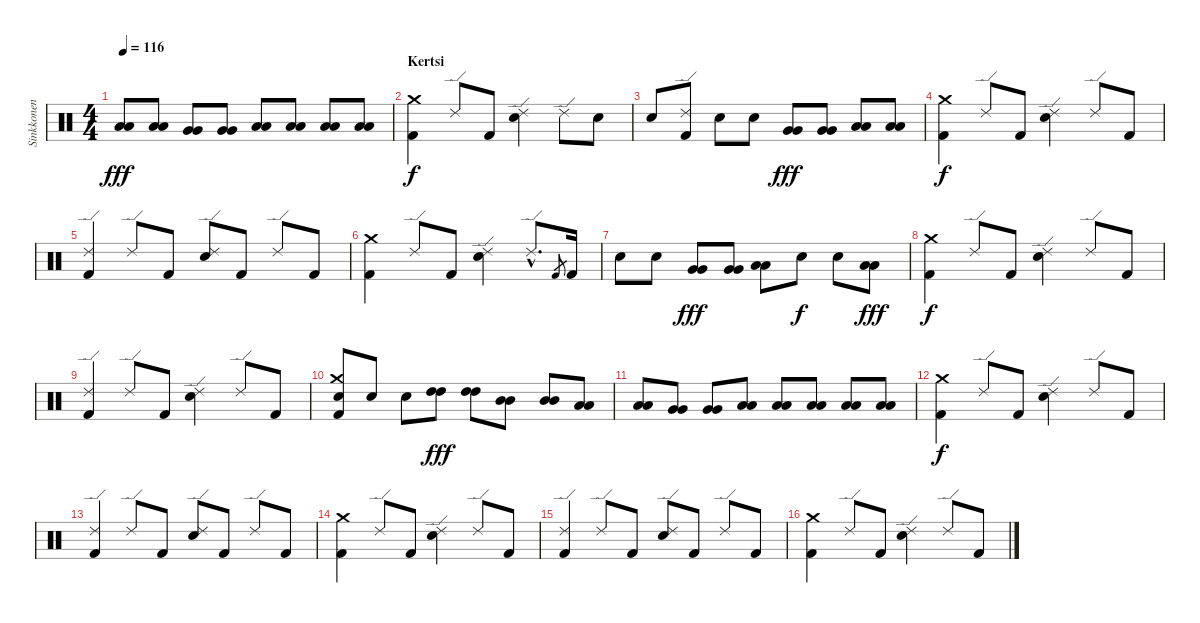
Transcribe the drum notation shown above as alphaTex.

\track ("Sinkkonen" "Sinkkonen") {instrument percussion}
\staff {score}
\articulation defaults
\ts (4 4)
\tempo 116
\clef neutral
\ks c
("Low Tom (hit)" "Low Tom (hit)").8{dy fff} ("Low Tom (hit)" "Low Tom (hit)").8 ("Very Low Tom (hit)" "Very Low Tom (hit)").8 ("Very Low Tom (hit)" "Very Low Tom (hit)").8 ("Low Floor Tom (hit)" "Low Floor Tom (hit)").8 ("Low Floor Tom (hit)" "Low Floor Tom (hit)").8 ("Low Floor Tom (hit)" "Low Floor Tom (hit)").8 ("Low Floor Tom (hit)" "Low Floor Tom (hit)").8 |
\section ("" "Kertsi")
("Kick (hit) 2" "Crash medium (hit)").4{dy f} "Ride (edge) 2".8 "Kick (hit) 2".8 ("Ride (edge) 2" "Snare (hit) 2").4 "Ride (edge) 2".8 "Snare (hit) 2".8 |
"Snare (hit) 2".8 ("Kick (hit) 2" "Ride (edge) 2").8 "Snare (hit) 2".8 "Snare (hit) 2".8 ("Very Low Tom (hit)" "Very Low Tom (hit)").8{dy fff} ("Very Low Tom (hit)" "Very Low Tom (hit)").8 ("Low Floor Tom (hit)" "Low Floor Tom (hit)").8 ("Low Floor Tom (hit)" "Low Floor Tom (hit)").8 |
("Kick (hit) 2" "Crash medium (hit)").4{dy f} "Ride (edge) 2".8 "Kick (hit) 2".8 ("Ride (edge) 2" "Snare (hit) 2").4 "Ride (edge) 2".8 "Kick (hit) 2".8 |
("Kick (hit) 2" "Ride (edge) 2").4 "Ride (edge) 2".8 "Kick (hit) 2".8 ("Ride (edge) 2" "Snare (hit) 2").8 "Kick (hit) 2".8 "Ride (edge) 2".8 "Kick (hit) 2".8 |
("Kick (hit) 2" "Crash medium (hit)").4 "Ride (edge) 2".8 "Kick (hit) 2".8 ("Ride (edge) 2" "Snare (hit) 2").4 "Ride (edge) 2"{hac}.8{d} "Kick (hit) 2".8{gr} "Kick (hit) 2".16 |
"Snare (hit) 2".8 "Snare (hit) 2".8 ("Very Low Tom (hit)" "Very Low Tom (hit)").8{dy fff} ("Very Low Tom (hit)" "Very Low Tom (hit)").8 ("Low Floor Tom (hit)" "Low Floor Tom (hit)").8 "Snare (hit) 2".8{dy f} "Snare (hit) 2".8 ("Low Floor Tom (hit)" "Low Floor Tom (hit)").8{dy fff} |
("Kick (hit) 2" "Crash medium (hit)").4{dy f} "Ride (edge) 2".8 "Kick (hit) 2".8 ("Ride (edge) 2" "Snare (hit) 2").4 "Ride (edge) 2".8 "Kick (hit) 2".8 |
("Kick (hit) 2" "Ride (edge) 2").4 "Ride (edge) 2".8 "Kick (hit) 2".8 ("Ride (edge) 2" "Snare (hit) 2").4 "Ride (edge) 2".8 "Kick (hit) 2".8 |
("Kick (hit) 2" "Crash medium (hit)" "Snare (hit) 2").8 "Snare (hit) 2".8 "Snare (hit) 2".8 ("High Tom (hit)" "High Tom (hit)").8{dy fff} ("High Tom (hit)" "High Tom (hit)").8 ("Mid Tom (hit)" "Mid Tom (hit)").8 ("Mid Tom (hit)" "Mid Tom (hit)").8 ("Low Tom (hit)" "Low Tom (hit)").8 |
("Low Tom (hit)" "Low Tom (hit)").8 ("Very Low Tom (hit)" "Very Low Tom (hit)").8 ("Very Low Tom (hit)" "Very Low Tom (hit)").8 ("Low Floor Tom (hit)" "Low Floor Tom (hit)").8 ("Low Floor Tom (hit)" "Low Floor Tom (hit)").8 ("Low Floor Tom (hit)" "Low Floor Tom (hit)").8 ("Low Floor Tom (hit)" "Low Floor Tom (hit)").8 ("Low Floor Tom (hit)" "Low Floor Tom (hit)").8 |
("Kick (hit) 2" "Crash medium (hit)").4{dy f} "Ride (edge) 2".8 "Kick (hit) 2".8 ("Ride (edge) 2" "Snare (hit) 2").4 "Ride (edge) 2".8 "Kick (hit) 2".8 |
("Kick (hit) 2" "Ride (edge) 2").4 "Ride (edge) 2".8 "Kick (hit) 2".8 ("Ride (edge) 2" "Snare (hit) 2").8 "Kick (hit) 2".8 "Ride (edge) 2".8 "Kick (hit) 2".8 |
("Kick (hit) 2" "Crash medium (hit)").4 "Ride (edge) 2".8 "Kick (hit) 2".8 ("Ride (edge) 2" "Snare (hit) 2").4 "Ride (edge) 2".8 "Kick (hit) 2".8 |
("Kick (hit) 2" "Ride (edge) 2").4 "Ride (edge) 2".8 "Kick (hit) 2".8 ("Ride (edge) 2" "Snare (hit) 2").8 "Kick (hit) 2".8 "Ride (edge) 2".8 "Kick (hit) 2".8 |
("Kick (hit) 2" "Crash medium (hit)").4 "Ride (edge) 2".8 "Kick (hit) 2".8 ("Ride (edge) 2" "Snare (hit) 2").4 "Ride (edge) 2".8 "Kick (hit) 2".8
